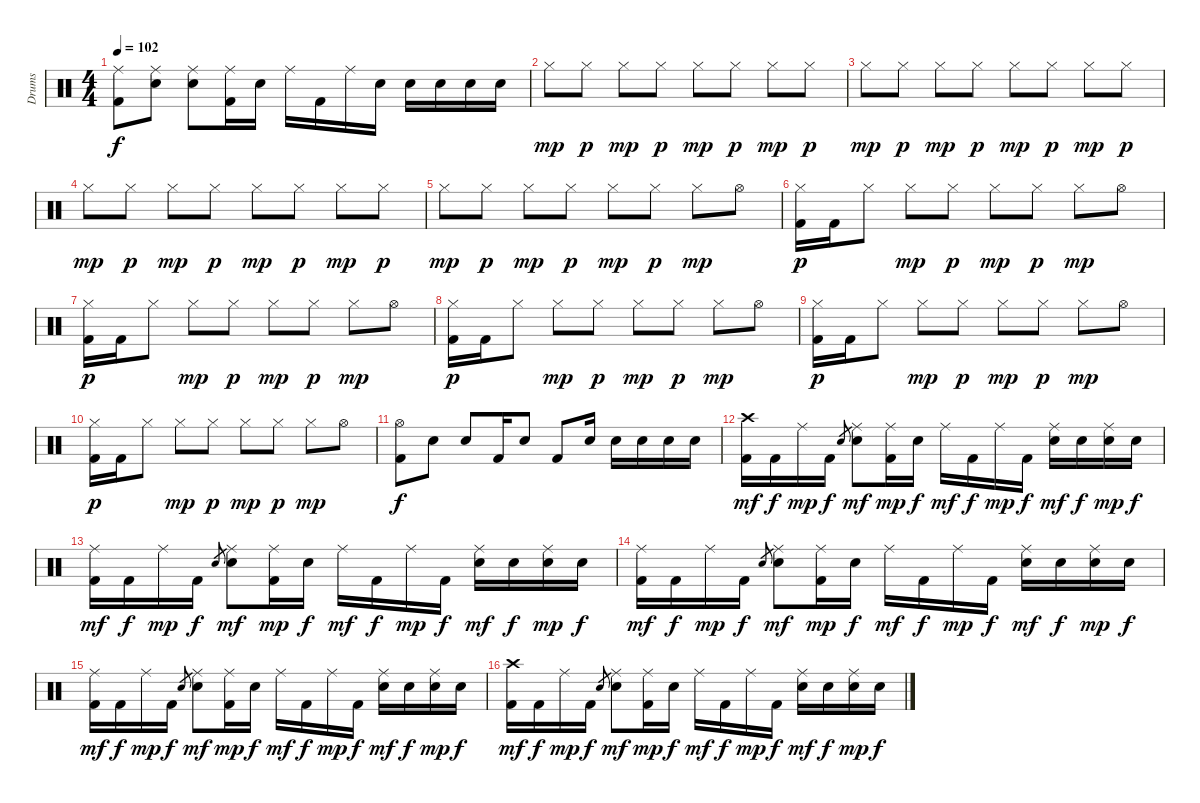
\track ("Drums" "Drums") {instrument percussion}
\staff {score}
\articulation defaults
\ts (4 4)
\tempo 102
\clef neutral
\ks c
("Ride (middle)" "Kick (hit) 2").8{dy f} ("Ride (middle)" "Snare (hit) 2").8 ("Ride (middle)" "Snare (hit) 2").8 ("Ride (middle)" "Kick (hit) 2").16 "Snare (hit) 2".16 "Ride (middle)".16 "Kick (hit) 2".16 "Ride (middle)".16 "Snare (hit) 2".16 "Snare (hit) 2".16 "Snare (hit) 2".16 "Snare (hit) 2".16 "Snare (hit) 2".16 |
"Hi-Hat (closed)".8{dy mp} "Hi-Hat (closed)".8{dy p} "Hi-Hat (closed)".8{dy mp} "Hi-Hat (closed)".8{dy p} "Hi-Hat (closed)".8{dy mp} "Hi-Hat (closed)".8{dy p} "Hi-Hat (closed)".8{dy mp} "Hi-Hat (closed)".8{dy p} |
"Hi-Hat (closed)".8{dy mp} "Hi-Hat (closed)".8{dy p} "Hi-Hat (closed)".8{dy mp} "Hi-Hat (closed)".8{dy p} "Hi-Hat (closed)".8{dy mp} "Hi-Hat (closed)".8{dy p} "Hi-Hat (closed)".8{dy mp} "Hi-Hat (closed)".8{dy p} |
"Hi-Hat (closed)".8{dy mp} "Hi-Hat (closed)".8{dy p} "Hi-Hat (closed)".8{dy mp} "Hi-Hat (closed)".8{dy p} "Hi-Hat (closed)".8{dy mp} "Hi-Hat (closed)".8{dy p} "Hi-Hat (closed)".8{dy mp} "Hi-Hat (closed)".8{dy p} |
"Hi-Hat (closed)".8{dy mp} "Hi-Hat (closed)".8{dy p} "Hi-Hat (closed)".8{dy mp} "Hi-Hat (closed)".8{dy p} "Hi-Hat (closed)".8{dy mp} "Hi-Hat (closed)".8{dy p} "Hi-Hat (closed)".8{dy mp} "Hi-Hat (open)".8 |
("Hi-Hat (closed)" "Kick (hit) 2").16{dy p} "Kick (hit) 2".16 "Hi-Hat (closed)".8 "Hi-Hat (closed)".8{dy mp} "Hi-Hat (closed)".8{dy p} "Hi-Hat (closed)".8{dy mp} "Hi-Hat (closed)".8{dy p} "Hi-Hat (closed)".8{dy mp} "Hi-Hat (open)".8 |
("Hi-Hat (closed)" "Kick (hit) 2").16{dy p} "Kick (hit) 2".16 "Hi-Hat (closed)".8 "Hi-Hat (closed)".8{dy mp} "Hi-Hat (closed)".8{dy p} "Hi-Hat (closed)".8{dy mp} "Hi-Hat (closed)".8{dy p} "Hi-Hat (closed)".8{dy mp} "Hi-Hat (open)".8 |
("Hi-Hat (closed)" "Kick (hit) 2").16{dy p} "Kick (hit) 2".16 "Hi-Hat (closed)".8 "Hi-Hat (closed)".8{dy mp} "Hi-Hat (closed)".8{dy p} "Hi-Hat (closed)".8{dy mp} "Hi-Hat (closed)".8{dy p} "Hi-Hat (closed)".8{dy mp} "Hi-Hat (open)".8 |
("Hi-Hat (closed)" "Kick (hit) 2").16{dy p} "Kick (hit) 2".16 "Hi-Hat (closed)".8 "Hi-Hat (closed)".8{dy mp} "Hi-Hat (closed)".8{dy p} "Hi-Hat (closed)".8{dy mp} "Hi-Hat (closed)".8{dy p} "Hi-Hat (closed)".8{dy mp} "Hi-Hat (open)".8 |
("Hi-Hat (closed)" "Kick (hit) 2").16{dy p} "Kick (hit) 2".16 "Hi-Hat (closed)".8 "Hi-Hat (closed)".8{dy mp} "Hi-Hat (closed)".8{dy p} "Hi-Hat (closed)".8{dy mp} "Hi-Hat (closed)".8{dy p} "Hi-Hat (closed)".8{dy mp} "Hi-Hat (open)".8 |
("Hi-Hat (open)" "Kick (hit) 2").8{dy f} "Snare (hit) 2".8 "Snare (hit) 2".8 "Kick (hit) 2".16 "Snare (hit) 2".8 "Kick (hit) 2".8 "Snare (hit) 2".16 "Snare (hit) 2".16 "Snare (hit) 2".16 "Snare (hit) 2".16 "Snare (hit) 2".16 |
("Crash high (hit)" "Kick (hit) 2").16{dy mf} "Kick (hit) 2".16{dy f} "Ride (middle)".16{dy mp} "Kick (hit) 2".16{dy f} "Snare (hit) 2".8{gr} ("Ride (middle)" "Snare (hit) 2").8{dy mf} ("Ride (middle)" "Kick (hit) 2").16{dy mp} "Snare (hit) 2".16{dy f} "Ride (middle)".16{dy mf} "Kick (hit) 2".16{dy f} "Ride (middle)".16{dy mp} "Kick (hit) 2".16{dy f} ("Ride (middle)" "Snare (hit) 2").16{dy mf} "Snare (hit) 2".16{dy f} ("Ride (middle)" "Snare (hit) 2").16{dy mp} "Snare (hit) 2".16{dy f} |
("Ride (middle)" "Kick (hit) 2").16{dy mf} "Kick (hit) 2".16{dy f} "Ride (middle)".16{dy mp} "Kick (hit) 2".16{dy f} "Snare (hit) 2".8{gr} ("Ride (middle)" "Snare (hit) 2").8{dy mf} ("Ride (middle)" "Kick (hit) 2").16{dy mp} "Snare (hit) 2".16{dy f} "Ride (middle)".16{dy mf} "Kick (hit) 2".16{dy f} "Ride (middle)".16{dy mp} "Kick (hit) 2".16{dy f} ("Ride (middle)" "Snare (hit) 2").16{dy mf} "Snare (hit) 2".16{dy f} ("Ride (middle)" "Snare (hit) 2").16{dy mp} "Snare (hit) 2".16{dy f} |
("Ride (middle)" "Kick (hit) 2").16{dy mf} "Kick (hit) 2".16{dy f} "Ride (middle)".16{dy mp} "Kick (hit) 2".16{dy f} "Snare (hit) 2".8{gr} ("Ride (middle)" "Snare (hit) 2").8{dy mf} ("Ride (middle)" "Kick (hit) 2").16{dy mp} "Snare (hit) 2".16{dy f} "Ride (middle)".16{dy mf} "Kick (hit) 2".16{dy f} "Ride (middle)".16{dy mp} "Kick (hit) 2".16{dy f} ("Ride (middle)" "Snare (hit) 2").16{dy mf} "Snare (hit) 2".16{dy f} ("Ride (middle)" "Snare (hit) 2").16{dy mp} "Snare (hit) 2".16{dy f} |
("Ride (middle)" "Kick (hit) 2").16{dy mf} "Kick (hit) 2".16{dy f} "Ride (middle)".16{dy mp} "Kick (hit) 2".16{dy f} "Snare (hit) 2".8{gr} ("Ride (middle)" "Snare (hit) 2").8{dy mf} ("Ride (middle)" "Kick (hit) 2").16{dy mp} "Snare (hit) 2".16{dy f} "Ride (middle)".16{dy mf} "Kick (hit) 2".16{dy f} "Ride (middle)".16{dy mp} "Kick (hit) 2".16{dy f} ("Ride (middle)" "Snare (hit) 2").16{dy mf} "Snare (hit) 2".16{dy f} ("Ride (middle)" "Snare (hit) 2").16{dy mp} "Snare (hit) 2".16{dy f} |
("Crash high (hit)" "Kick (hit) 2").16{dy mf} "Kick (hit) 2".16{dy f} "Ride (middle)".16{dy mp} "Kick (hit) 2".16{dy f} "Snare (hit) 2".8{gr} ("Ride (middle)" "Snare (hit) 2").8{dy mf} ("Ride (middle)" "Kick (hit) 2").16{dy mp} "Snare (hit) 2".16{dy f} "Ride (middle)".16{dy mf} "Kick (hit) 2".16{dy f} "Ride (middle)".16{dy mp} "Kick (hit) 2".16{dy f} ("Ride (middle)" "Snare (hit) 2").16{dy mf} "Snare (hit) 2".16{dy f} ("Ride (middle)" "Snare (hit) 2").16{dy mp} "Snare (hit) 2".16{dy f}
